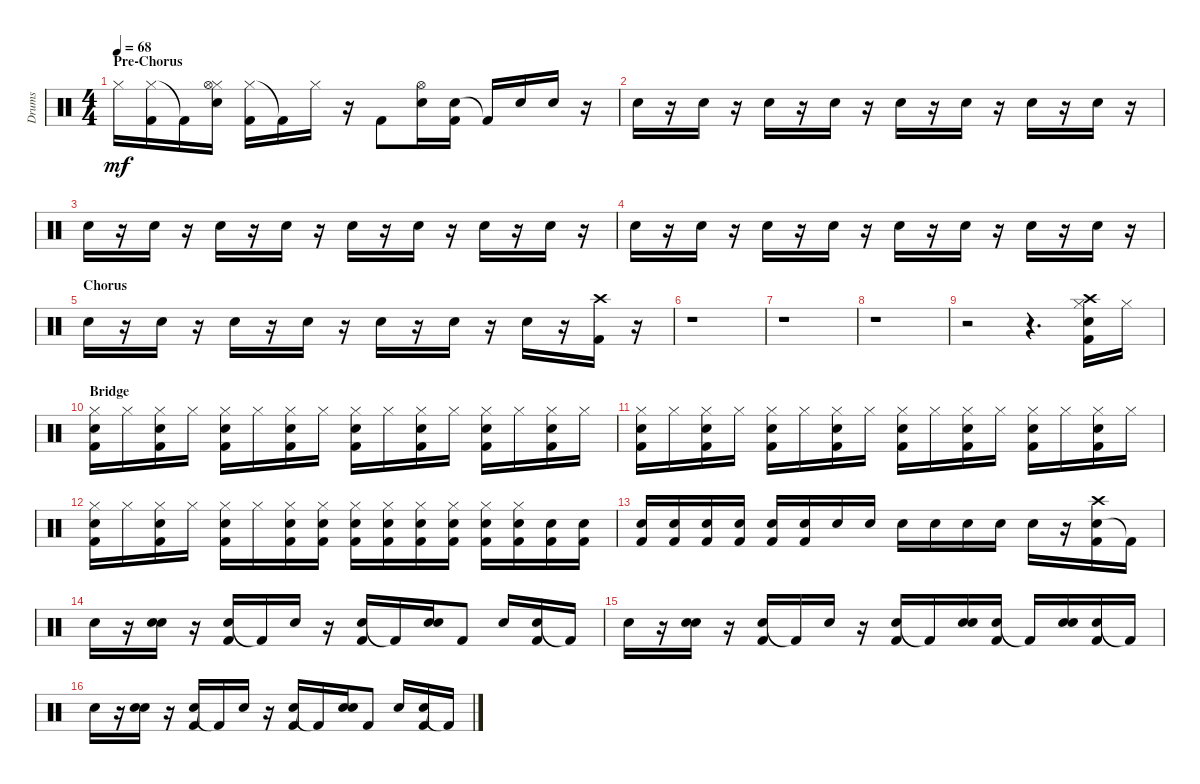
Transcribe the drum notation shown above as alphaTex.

\track ("Drums" "Drums") {instrument percussion}
\staff {score}
\articulation defaults
\ts (4 4)
\section ("" "Pre-Chorus")
\tempo 68
\clef neutral
\ks aminor "Hi-Hat (closed)".16{dy mf}
("Hi-Hat (closed)" "Kick (hit) 2").16 "Kick (hit) 2"{t}.16 ("Electric Snare (hit)" "Hi-Hat (closed)" "Hi-Hat (open)").16 ("Hi-Hat (closed)" "Kick (hit) 2").16 "Kick (hit) 2"{t}.16 "Hi-Hat (closed)".16 r.16 "Kick (hit) 2".8 ("Electric Snare (hit)" "Hi-Hat (open)").16 ("Electric Snare (hit)" "Kick (hit) 2").16 "Kick (hit) 2"{t}.16 "Electric Snare (hit)".16 "Hand Clap (hit)".16 r.16 |
"Hand Clap (hit)".16 r.16 "Hand Clap (hit)".16 r.16 "Hand Clap (hit)".16 r.16 "Hand Clap (hit)".16 r.16 "Hand Clap (hit)".16 r.16 "Hand Clap (hit)".16 r.16 "Hand Clap (hit)".16 r.16 "Hand Clap (hit)".16 r.16 |
"Hand Clap (hit)".16 r.16 "Hand Clap (hit)".16 r.16 "Hand Clap (hit)".16 r.16 "Hand Clap (hit)".16 r.16 "Hand Clap (hit)".16 r.16 "Hand Clap (hit)".16 r.16 "Hand Clap (hit)".16 r.16 "Hand Clap (hit)".16 r.16 |
"Hand Clap (hit)".16 r.16 "Hand Clap (hit)".16 r.16 "Hand Clap (hit)".16 r.16 "Hand Clap (hit)".16 r.16 "Hand Clap (hit)".16 r.16 "Hand Clap (hit)".16 r.16 "Hand Clap (hit)".16 r.16 "Hand Clap (hit)".16 r.16 |
\section ("" "Chorus")
"Hand Clap (hit)".16 r.16 "Hand Clap (hit)".16 r.16 "Hand Clap (hit)".16 r.16 "Hand Clap (hit)".16 r.16 "Hand Clap (hit)".16 r.16 "Hand Clap (hit)".16 r.16 "Hand Clap (hit)".16 r.16 ("Kick (hit) 2" "Crash high (hit)").16 r.16 |
r.1 |
r.1 |
r.1 |
r.2 r.4{d} ("Kick (hit) 2" "Hand Clap (hit)" "Hi-Hat (closed)" "Crash high (hit)").16 "Hi-Hat (closed)".16 |
\section ("" "Bridge")
("Kick (hit) 2" "Hand Clap (hit)" "Hi-Hat (closed)").16 "Hi-Hat (closed)".16 ("Kick (hit) 2" "Hand Clap (hit)" "Hi-Hat (closed)").16 "Hi-Hat (closed)".16 ("Kick (hit) 2" "Hand Clap (hit)" "Hi-Hat (closed)").16 "Hi-Hat (closed)".16 ("Kick (hit) 2" "Hand Clap (hit)" "Hi-Hat (closed)").16 "Hi-Hat (closed)".16 ("Kick (hit) 2" "Hand Clap (hit)" "Hi-Hat (closed)").16 "Hi-Hat (closed)".16 ("Kick (hit) 2" "Hand Clap (hit)" "Hi-Hat (closed)").16 "Hi-Hat (closed)".16 ("Kick (hit) 2" "Hand Clap (hit)" "Hi-Hat (closed)").16 "Hi-Hat (closed)".16 ("Kick (hit) 2" "Hand Clap (hit)" "Hi-Hat (closed)").16 "Hi-Hat (closed)".16 |
("Kick (hit) 2" "Hand Clap (hit)" "Hi-Hat (closed)").16 "Hi-Hat (closed)".16 ("Kick (hit) 2" "Hand Clap (hit)" "Hi-Hat (closed)").16 "Hi-Hat (closed)".16 ("Kick (hit) 2" "Hand Clap (hit)" "Hi-Hat (closed)").16 "Hi-Hat (closed)".16 ("Kick (hit) 2" "Hand Clap (hit)" "Hi-Hat (closed)").16 "Hi-Hat (closed)".16 ("Kick (hit) 2" "Hand Clap (hit)" "Hi-Hat (closed)").16 "Hi-Hat (closed)".16 ("Kick (hit) 2" "Hand Clap (hit)" "Hi-Hat (closed)").16 "Hi-Hat (closed)".16 ("Kick (hit) 2" "Hand Clap (hit)" "Hi-Hat (closed)").16 "Hi-Hat (closed)".16 ("Kick (hit) 2" "Hand Clap (hit)" "Hi-Hat (closed)").16 "Hi-Hat (closed)".16 |
("Kick (hit) 2" "Hand Clap (hit)" "Hi-Hat (closed)").16 "Hi-Hat (closed)".16 ("Kick (hit) 2" "Hand Clap (hit)" "Hi-Hat (closed)").16 "Hi-Hat (closed)".16 ("Kick (hit) 2" "Hand Clap (hit)" "Hi-Hat (closed)").16 "Hi-Hat (closed)".16 ("Kick (hit) 2" "Hand Clap (hit)" "Hi-Hat (closed)").16 ("Kick (hit) 2" "Hand Clap (hit)" "Hi-Hat (closed)").16 ("Kick (hit) 2" "Hand Clap (hit)" "Hi-Hat (closed)").16 ("Kick (hit) 2" "Hand Clap (hit)" "Hi-Hat (closed)").16 ("Kick (hit) 2" "Hand Clap (hit)" "Hi-Hat (closed)").16 ("Kick (hit) 2" "Hand Clap (hit)" "Hi-Hat (closed)").16 ("Kick (hit) 2" "Hand Clap (hit)" "Hi-Hat (closed)").16 ("Kick (hit) 2" "Hand Clap (hit)" "Hi-Hat (closed)").16 ("Kick (hit) 2" "Hand Clap (hit)").16 ("Kick (hit) 2" "Hand Clap (hit)").16 |
("Kick (hit) 2" "Hand Clap (hit)").16 ("Kick (hit) 2" "Hand Clap (hit)").16 ("Kick (hit) 2" "Hand Clap (hit)").16 ("Kick (hit) 2" "Hand Clap (hit)").16 ("Kick (hit) 2" "Hand Clap (hit)").16 ("Kick (hit) 2" "Hand Clap (hit)").16 "Electric Snare (hit)".16 "Electric Snare (hit)".16 "Electric Snare (hit)".16 "Electric Snare (hit)".16 "Electric Snare (hit)".16 "Electric Snare (hit)".16 "Electric Snare (hit)".16 r.16 ("Hand Clap (hit)" "Crash high (hit)" "Kick (hit) 2").16 "Kick (hit) 2"{t}.16 |
"Hand Clap (hit)".16 r.16 ("Hand Clap (hit)" "Electric Snare (hit)").16 r.16 ("Hand Clap (hit)" "Kick (hit) 2").16 "Kick (hit) 2"{t}.16 "Hand Clap (hit)".16 r.16 ("Hand Clap (hit)" "Kick (hit) 2").16 "Kick (hit) 2"{t}.16 ("Hand Clap (hit)" "Electric Snare (hit)").16 "Kick (hit) 2".8 "Hand Clap (hit)".16 ("Hand Clap (hit)" "Kick (hit) 2").16 "Kick (hit) 2"{t}.16 |
"Hand Clap (hit)".16 r.16 ("Hand Clap (hit)" "Electric Snare (hit)").16 r.16 ("Hand Clap (hit)" "Kick (hit) 2").16 "Kick (hit) 2"{t}.16 "Hand Clap (hit)".16 r.16 ("Hand Clap (hit)" "Kick (hit) 2").16 "Kick (hit) 2"{t}.16 ("Hand Clap (hit)" "Electric Snare (hit)").16 ("Electric Snare (hit)" "Kick (hit) 2").16 "Kick (hit) 2"{t}.16 ("Hand Clap (hit)" "Electric Snare (hit)").16 ("Hand Clap (hit)" "Kick (hit) 2").16 "Kick (hit) 2"{t}.16 |
"Hand Clap (hit)".16 r.16 ("Hand Clap (hit)" "Electric Snare (hit)").16 r.16 ("Hand Clap (hit)" "Kick (hit) 2").16 "Kick (hit) 2"{t}.16 "Hand Clap (hit)".16 r.16 ("Hand Clap (hit)" "Kick (hit) 2").16 "Kick (hit) 2"{t}.16 ("Hand Clap (hit)" "Electric Snare (hit)").16 "Kick (hit) 2".8 "Hand Clap (hit)".16 ("Hand Clap (hit)" "Kick (hit) 2").16 "Kick (hit) 2"{t}.16
